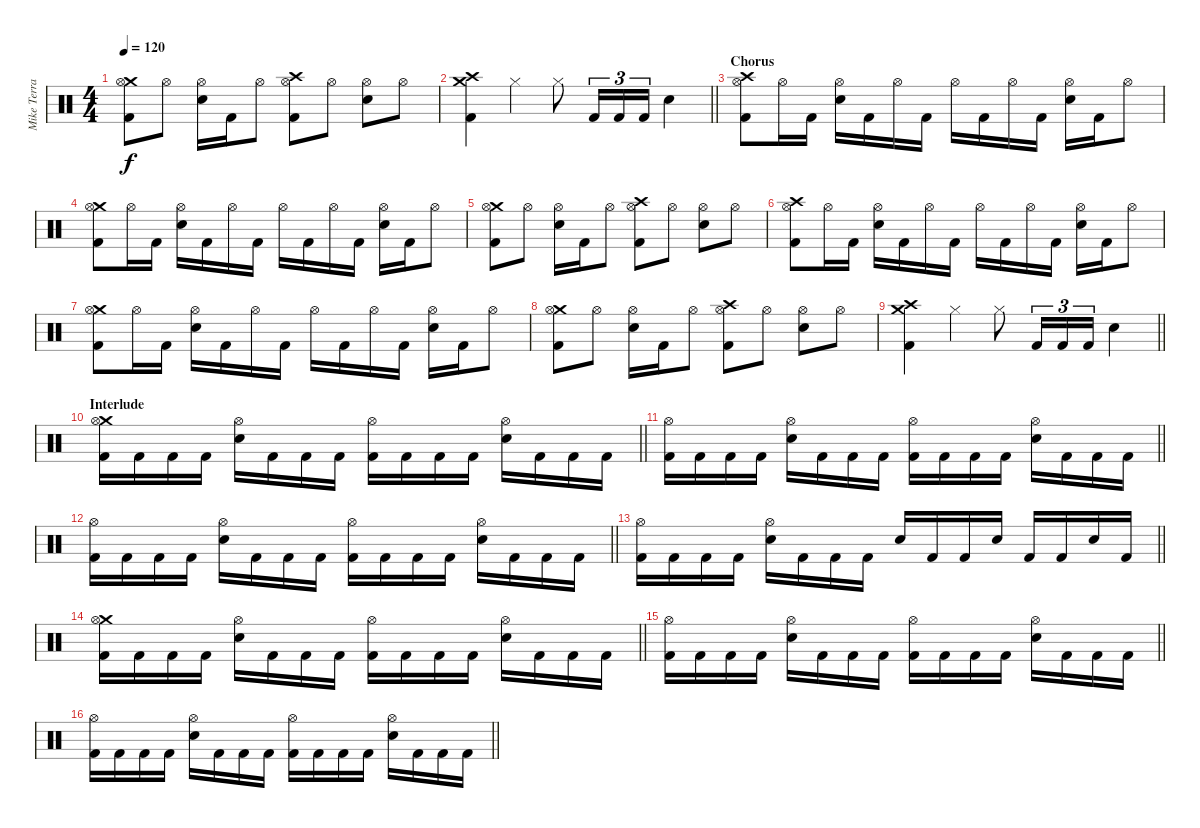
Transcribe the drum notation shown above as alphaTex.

\track ("Mike Terrana" "Mike Terra") {instrument percussion}
\staff {score}
\articulation defaults
\ts (4 4)
\tempo 120
\clef neutral
\ks c
("Crash medium (hit)" "Hi-Hat (open)" "Kick (hit) 2").8{dy f} "Hi-Hat (open)".8 ("Hi-Hat (open)" "Snare (hit) 2").16 "Kick (hit) 2".16 "Hi-Hat (open)".8 ("Crash high (hit)" "Hi-Hat (open)" "Kick (hit) 2").8 "Hi-Hat (open)".8 ("Hi-Hat (open)" "Snare (hit) 2").8 "Hi-Hat (open)".8 |
\barLineRight lightlight
("Crash high (hit)" "Crash medium (hit)" "Kick (hit) 2").4 "Hi-Hat (closed)".4 "Hi-Hat (closed)".8 "Kick (hit) 2".16{tu (3 2)} "Kick (hit) 2".16{tu (3 2)} "Kick (hit) 2".16{tu (3 2)} "Snare (hit) 2".4 |
\section ("" "Chorus")
("Crash high (hit)" "Hi-Hat (open)" "Kick (hit) 2").8 "Hi-Hat (open)".16 "Kick (hit) 2".16 ("Hi-Hat (open)" "Snare (hit) 2").16 "Kick (hit) 2".16 "Hi-Hat (open)".16 "Kick (hit) 2".16 "Hi-Hat (open)".16 "Kick (hit) 2".16 "Hi-Hat (open)".16 "Kick (hit) 2".16 ("Hi-Hat (open)" "Snare (hit) 2").16 "Kick (hit) 2".16 "Hi-Hat (open)".8 |
("Crash medium (hit)" "Hi-Hat (open)" "Kick (hit) 2").8 "Hi-Hat (open)".16 "Kick (hit) 2".16 ("Hi-Hat (open)" "Snare (hit) 2").16 "Kick (hit) 2".16 "Hi-Hat (open)".16 "Kick (hit) 2".16 "Hi-Hat (open)".16 "Kick (hit) 2".16 "Hi-Hat (open)".16 "Kick (hit) 2".16 ("Hi-Hat (open)" "Snare (hit) 2").16 "Kick (hit) 2".16 "Hi-Hat (open)".8 |
("Crash medium (hit)" "Hi-Hat (open)" "Kick (hit) 2").8 "Hi-Hat (open)".8 ("Hi-Hat (open)" "Snare (hit) 2").16 "Kick (hit) 2".16 "Hi-Hat (open)".8 ("Crash high (hit)" "Hi-Hat (open)" "Kick (hit) 2").8 "Hi-Hat (open)".8 ("Hi-Hat (open)" "Snare (hit) 2").8 "Hi-Hat (open)".8 |
("Crash high (hit)" "Hi-Hat (open)" "Kick (hit) 2").8 "Hi-Hat (open)".16 "Kick (hit) 2".16 ("Hi-Hat (open)" "Snare (hit) 2").16 "Kick (hit) 2".16 "Hi-Hat (open)".16 "Kick (hit) 2".16 "Hi-Hat (open)".16 "Kick (hit) 2".16 "Hi-Hat (open)".16 "Kick (hit) 2".16 ("Hi-Hat (open)" "Snare (hit) 2").16 "Kick (hit) 2".16 "Hi-Hat (open)".8 |
("Crash medium (hit)" "Hi-Hat (open)" "Kick (hit) 2").8 "Hi-Hat (open)".16 "Kick (hit) 2".16 ("Hi-Hat (open)" "Snare (hit) 2").16 "Kick (hit) 2".16 "Hi-Hat (open)".16 "Kick (hit) 2".16 "Hi-Hat (open)".16 "Kick (hit) 2".16 "Hi-Hat (open)".16 "Kick (hit) 2".16 ("Hi-Hat (open)" "Snare (hit) 2").16 "Kick (hit) 2".16 "Hi-Hat (open)".8 |
("Crash medium (hit)" "Hi-Hat (open)" "Kick (hit) 2").8 "Hi-Hat (open)".8 ("Hi-Hat (open)" "Snare (hit) 2").16 "Kick (hit) 2".16 "Hi-Hat (open)".8 ("Crash high (hit)" "Hi-Hat (open)" "Kick (hit) 2").8 "Hi-Hat (open)".8 ("Hi-Hat (open)" "Snare (hit) 2").8 "Hi-Hat (open)".8 |
\barLineRight lightlight
("Crash high (hit)" "Crash medium (hit)" "Kick (hit) 2").4 "Hi-Hat (closed)".4 "Hi-Hat (closed)".8 "Kick (hit) 2".16{tu (3 2)} "Kick (hit) 2".16{tu (3 2)} "Kick (hit) 2".16{tu (3 2)} "Snare (hit) 2".4 |
\section ("" "Interlude")
\barLineRight lightlight
("Crash medium (hit)" "Hi-Hat (open)" "Kick (hit) 2").16 "Kick (hit) 2".16 "Kick (hit) 2".16 "Kick (hit) 2".16 ("Hi-Hat (open)" "Snare (hit) 2").16 "Kick (hit) 2".16 "Kick (hit) 2".16 "Kick (hit) 2".16 ("Hi-Hat (open)" "Kick (hit) 2").16 "Kick (hit) 2".16 "Kick (hit) 2".16 "Kick (hit) 2".16 ("Hi-Hat (open)" "Snare (hit) 2").16 "Kick (hit) 2".16 "Kick (hit) 2".16 "Kick (hit) 2".16 |
\barLineRight lightlight
("Hi-Hat (open)" "Kick (hit) 2").16 "Kick (hit) 2".16 "Kick (hit) 2".16 "Kick (hit) 2".16 ("Hi-Hat (open)" "Snare (hit) 2").16 "Kick (hit) 2".16 "Kick (hit) 2".16 "Kick (hit) 2".16 ("Hi-Hat (open)" "Kick (hit) 2").16 "Kick (hit) 2".16 "Kick (hit) 2".16 "Kick (hit) 2".16 ("Hi-Hat (open)" "Snare (hit) 2").16 "Kick (hit) 2".16 "Kick (hit) 2".16 "Kick (hit) 2".16 |
\barLineRight lightlight
("Hi-Hat (open)" "Kick (hit) 2").16 "Kick (hit) 2".16 "Kick (hit) 2".16 "Kick (hit) 2".16 ("Hi-Hat (open)" "Snare (hit) 2").16 "Kick (hit) 2".16 "Kick (hit) 2".16 "Kick (hit) 2".16 ("Hi-Hat (open)" "Kick (hit) 2").16 "Kick (hit) 2".16 "Kick (hit) 2".16 "Kick (hit) 2".16 ("Hi-Hat (open)" "Snare (hit) 2").16 "Kick (hit) 2".16 "Kick (hit) 2".16 "Kick (hit) 2".16 |
\barLineRight lightlight
("Hi-Hat (open)" "Kick (hit) 2").16 "Kick (hit) 2".16 "Kick (hit) 2".16 "Kick (hit) 2".16 ("Hi-Hat (open)" "Snare (hit) 2").16 "Kick (hit) 2".16 "Kick (hit) 2".16 "Kick (hit) 2".16 "Snare (hit) 2".16 "Kick (hit) 2".16 "Kick (hit) 2".16 "Snare (hit) 2".16 "Kick (hit) 2".16 "Kick (hit) 2".16 "Snare (hit) 2".16 "Kick (hit) 2".16 |
\barLineRight lightlight
("Crash medium (hit)" "Hi-Hat (open)" "Kick (hit) 2").16 "Kick (hit) 2".16 "Kick (hit) 2".16 "Kick (hit) 2".16 ("Hi-Hat (open)" "Snare (hit) 2").16 "Kick (hit) 2".16 "Kick (hit) 2".16 "Kick (hit) 2".16 ("Hi-Hat (open)" "Kick (hit) 2").16 "Kick (hit) 2".16 "Kick (hit) 2".16 "Kick (hit) 2".16 ("Hi-Hat (open)" "Snare (hit) 2").16 "Kick (hit) 2".16 "Kick (hit) 2".16 "Kick (hit) 2".16 |
\barLineRight lightlight
("Hi-Hat (open)" "Kick (hit) 2").16 "Kick (hit) 2".16 "Kick (hit) 2".16 "Kick (hit) 2".16 ("Hi-Hat (open)" "Snare (hit) 2").16 "Kick (hit) 2".16 "Kick (hit) 2".16 "Kick (hit) 2".16 ("Hi-Hat (open)" "Kick (hit) 2").16 "Kick (hit) 2".16 "Kick (hit) 2".16 "Kick (hit) 2".16 ("Hi-Hat (open)" "Snare (hit) 2").16 "Kick (hit) 2".16 "Kick (hit) 2".16 "Kick (hit) 2".16 |
\barLineRight lightlight
("Hi-Hat (open)" "Kick (hit) 2").16 "Kick (hit) 2".16 "Kick (hit) 2".16 "Kick (hit) 2".16 ("Hi-Hat (open)" "Snare (hit) 2").16 "Kick (hit) 2".16 "Kick (hit) 2".16 "Kick (hit) 2".16 ("Hi-Hat (open)" "Kick (hit) 2").16 "Kick (hit) 2".16 "Kick (hit) 2".16 "Kick (hit) 2".16 ("Hi-Hat (open)" "Snare (hit) 2").16 "Kick (hit) 2".16 "Kick (hit) 2".16 "Kick (hit) 2".16
